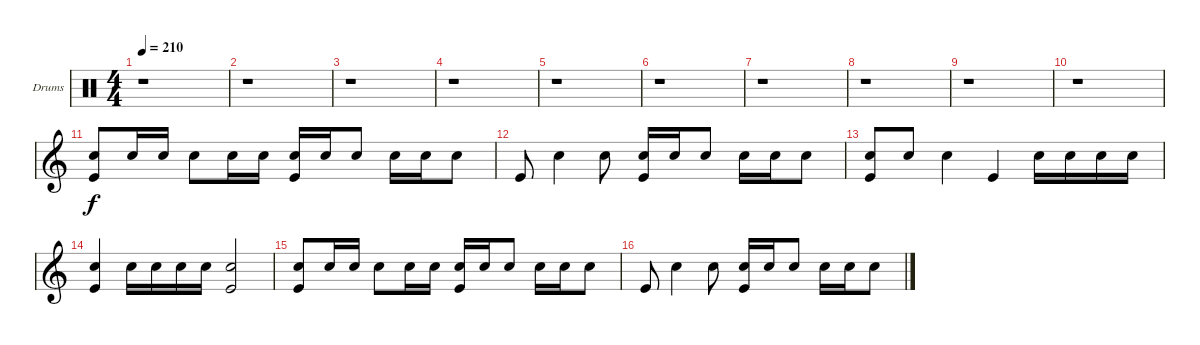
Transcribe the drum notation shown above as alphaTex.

\bracketExtendMode groupsimilarinstruments
\firstSystemTrackNameOrientation horizontal
\otherSystemsTrackNameOrientation horizontal
\track ("Drumkit" "Drums") {instrument percussion}
\staff {score}
\articulation defaults
\ts (4 4)
\tempo 210
\clef neutral
\ks c
r.1{dy f} |
r.1 |
r.1 |
r.1 |
r.1 |
r.1 |
r.1 |
r.1 |
r.1 |
r.1 |
\clef g2
("Snare (hit) 2" "Kick (hit)").8 "Snare (hit) 2".16 "Snare (hit) 2".16 "Snare (hit) 2".8 "Snare (hit) 2".16 "Snare (hit) 2".16 ("Snare (hit) 2" "Kick (hit)").16 "Snare (hit) 2".16 "Snare (hit) 2".8 "Snare (hit) 2".16 "Snare (hit) 2".16 "Snare (hit) 2".8 |
"Kick (hit)".8 "Snare (hit) 2".4 "Snare (hit) 2".8 ("Snare (hit) 2" "Kick (hit)").16 "Snare (hit) 2".16 "Snare (hit) 2".8 "Snare (hit) 2".16 "Snare (hit) 2".16 "Snare (hit) 2".8 |
("Snare (hit) 2" "Kick (hit)").8 "Snare (hit) 2".8 "Snare (hit) 2".4 "Kick (hit)".4 "Snare (hit) 2".16 "Snare (hit) 2".16 "Snare (hit) 2".16 "Snare (hit) 2".16 |
("Snare (hit) 2" "Kick (hit)").4 "Snare (hit) 2".16 "Snare (hit) 2".16 "Snare (hit) 2".16 "Snare (hit) 2".16 ("Snare (hit) 2" "Kick (hit)").2 |
("Snare (hit) 2" "Kick (hit)").8 "Snare (hit) 2".16 "Snare (hit) 2".16 "Snare (hit) 2".8 "Snare (hit) 2".16 "Snare (hit) 2".16 ("Snare (hit) 2" "Kick (hit)").16 "Snare (hit) 2".16 "Snare (hit) 2".8 "Snare (hit) 2".16 "Snare (hit) 2".16 "Snare (hit) 2".8 |
"Kick (hit)".8 "Snare (hit) 2".4 "Snare (hit) 2".8 ("Snare (hit) 2" "Kick (hit)").16 "Snare (hit) 2".16 "Snare (hit) 2".8 "Snare (hit) 2".16 "Snare (hit) 2".16 "Snare (hit) 2".8
